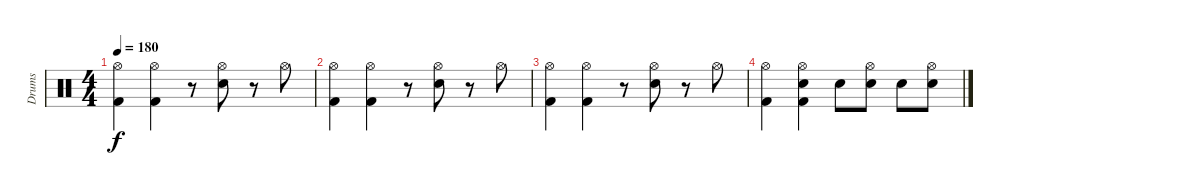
\track ("Drums" "Drums") {instrument percussion}
\staff {score}
\articulation defaults
\ts (4 4)
\tempo 180
\clef neutral
\ks c
("Hi-Hat (open)" "Kick (hit) 2").4{dy f} ("Hi-Hat (open)" "Kick (hit) 2").4 r.8 ("Hi-Hat (open)" "Electric Snare (hit)").8 r.8 "Hi-Hat (open)".8 |
("Hi-Hat (open)" "Kick (hit) 2").4 ("Hi-Hat (open)" "Kick (hit) 2").4 r.8 ("Hi-Hat (open)" "Electric Snare (hit)").8 r.8 "Hi-Hat (open)".8 |
("Hi-Hat (open)" "Kick (hit) 2").4 ("Hi-Hat (open)" "Kick (hit) 2").4 r.8 ("Hi-Hat (open)" "Electric Snare (hit)").8 r.8 "Hi-Hat (open)".8 |
("Hi-Hat (open)" "Kick (hit) 2").4 ("Hi-Hat (open)" "Electric Snare (hit)" "Kick (hit) 2").4 "Electric Snare (hit)".8 ("Hi-Hat (open)" "Electric Snare (hit)").8 "Electric Snare (hit)".8 ("Hi-Hat (open)" "Electric Snare (hit)").8
